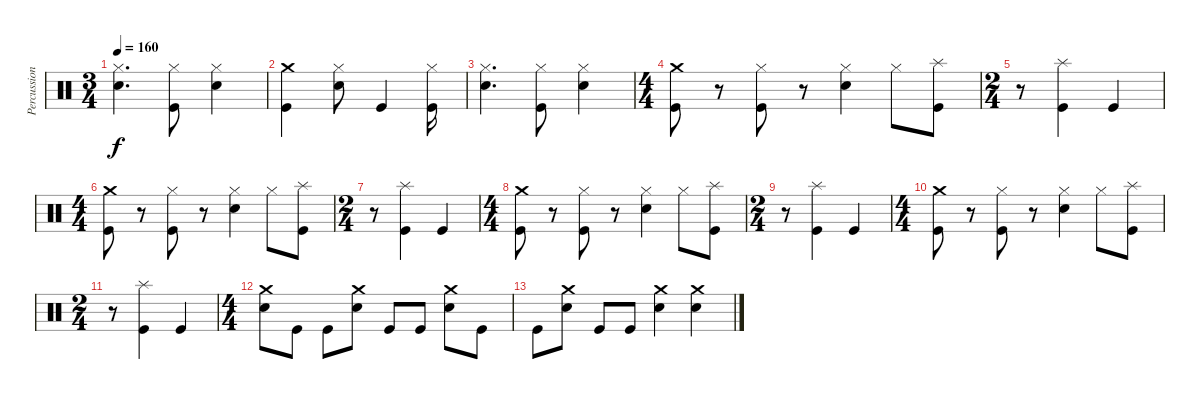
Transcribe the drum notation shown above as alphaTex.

\track ("Percussion" "Percussion") {instrument percussion}
\staff {score}
\articulation defaults
\ts (3 4)
\tempo 160
\clef neutral
\ks c
("Hi-Hat (closed)" "Snare (hit) 2").4{d dy f} ("Hi-Hat (closed)" "Kick (hit)").8 ("Hi-Hat (closed)" "Snare (hit) 2").4 |
("Crash medium (hit)" "Kick (hit)").4 ("Hi-Hat (closed)" "Snare (hit) 2").8 "Kick (hit)".4 ("Hi-Hat (closed)" "Kick (hit)").16 |
("Hi-Hat (closed)" "Snare (hit) 2").4{d} ("Hi-Hat (closed)" "Kick (hit)").8 ("Hi-Hat (closed)" "Snare (hit) 2").4 |
\ts (4 4)
("Crash medium (hit)" "Kick (hit)").8 r.8 ("Hi-Hat (closed)" "Kick (hit)").8 r.8 ("Hi-Hat (closed)" "Snare (hit) 2").4 "Hi-Hat (closed)".8 ("Splash (hit)" "Kick (hit)").8 |
\ts (2 4)
r.8 ("Splash (hit)" "Kick (hit)").4 "Kick (hit)".4 |
\ts (4 4)
("Crash medium (hit)" "Kick (hit)").8 r.8 ("Hi-Hat (closed)" "Kick (hit)").8 r.8 ("Hi-Hat (closed)" "Snare (hit) 2").4 "Hi-Hat (closed)".8 ("Splash (hit)" "Kick (hit)").8 |
\ts (2 4)
r.8 ("Splash (hit)" "Kick (hit)").4 "Kick (hit)".4 |
\ts (4 4)
("Crash medium (hit)" "Kick (hit)").8 r.8 ("Hi-Hat (closed)" "Kick (hit)").8 r.8 ("Hi-Hat (closed)" "Snare (hit) 2").4 "Hi-Hat (closed)".8 ("Splash (hit)" "Kick (hit)").8 |
\ts (2 4)
r.8 ("Splash (hit)" "Kick (hit)").4 "Kick (hit)".4 |
\ts (4 4)
("Crash medium (hit)" "Kick (hit)").8 r.8 ("Hi-Hat (closed)" "Kick (hit)").8 r.8 ("Hi-Hat (closed)" "Snare (hit) 2").4 "Hi-Hat (closed)".8 ("Splash (hit)" "Kick (hit)").8 |
\ts (2 4)
r.8 ("Splash (hit)" "Kick (hit)").4 "Kick (hit)".4 |
\ts (4 4)
("Crash medium (hit)" "Snare (hit) 2").8 "Kick (hit)".8 "Kick (hit)".8 ("Crash medium (hit)" "Snare (hit) 2").8 "Kick (hit)".8 "Kick (hit)".8 ("Crash medium (hit)" "Snare (hit) 2").8 "Kick (hit)".8 |
"Kick (hit)".8 ("Crash medium (hit)" "Snare (hit) 2").8 "Kick (hit)".8 "Kick (hit)".8 ("Crash medium (hit)" "Snare (hit) 2").4 ("Crash medium (hit)" "Snare (hit) 2").4
